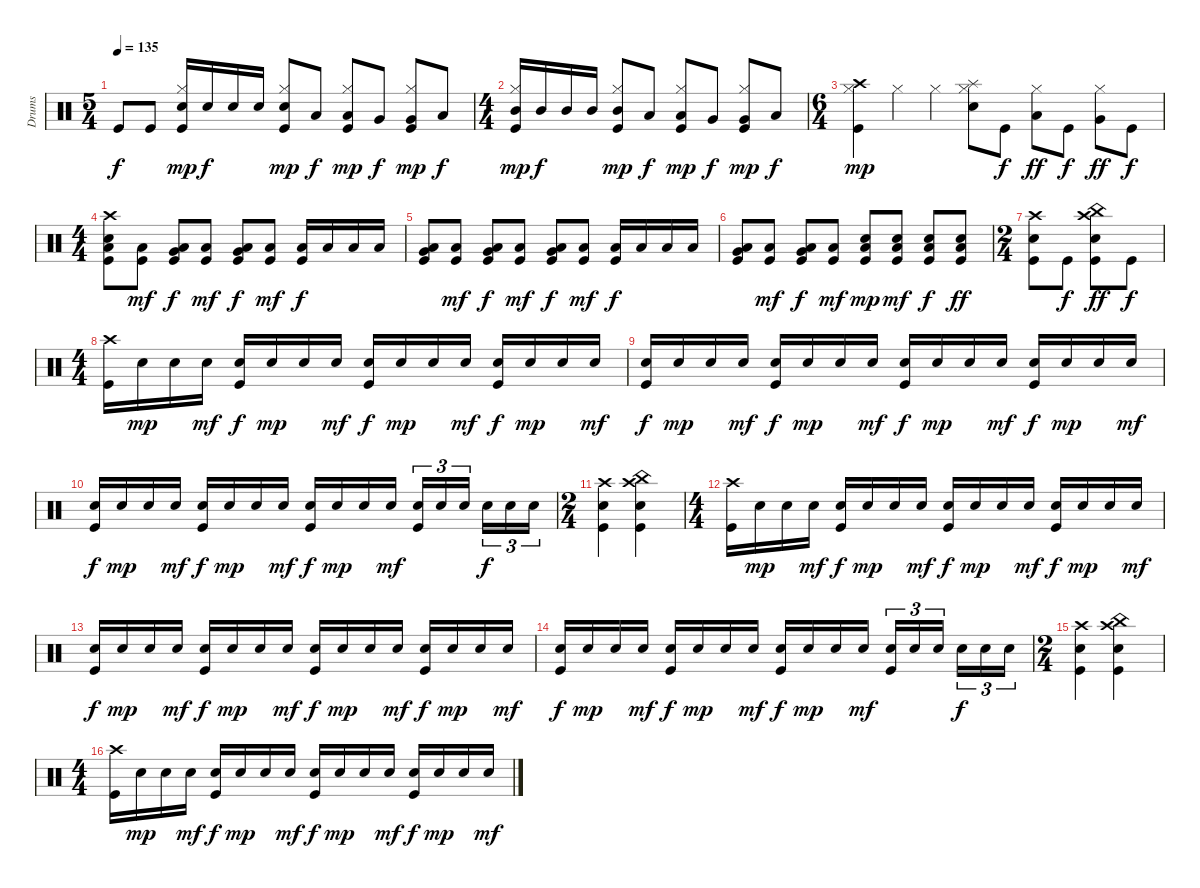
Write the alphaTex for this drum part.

\track ("Drums" "Drums") {instrument percussion}
\staff {score}
\articulation defaults
\ts (5 4)
\tempo 135
\clef neutral
\ks c "Kick (hit)".8{dy f} "Kick (hit)".8
("Hi-Hat (closed)" "Electric Snare (hit)" "Kick (hit)").16{dy mp} "Electric Snare (hit)".16{dy f} "Electric Snare (hit)".16 "Electric Snare (hit)".16 ("Hi-Hat (closed)" "Electric Snare (hit)" "Kick (hit)").8{dy mp} "Low Tom (hit)".8{dy f} ("Hi-Hat (closed)" "Low Tom (hit)" "Kick (hit)").8{dy mp} "Very Low Tom (hit)".8{dy f} ("Hi-Hat (closed)" "Very Low Tom (hit)" "Kick (hit)").8{dy mp} "Low Floor Tom (hit)".8{dy f} |
\ts (4 4)
("Hi-Hat (closed)" "Mid Tom (hit)" "Kick (hit)").16{dy mp} "Mid Tom (hit)".16{dy f} "Mid Tom (hit)".16 "Mid Tom (hit)".16 ("Hi-Hat (closed)" "Mid Tom (hit)" "Kick (hit)").8{dy mp} "Low Tom (hit)".8{dy f} ("Hi-Hat (closed)" "Low Tom (hit)" "Kick (hit)").8{dy mp} "Very Low Tom (hit)".8{dy f} ("Hi-Hat (closed)" "Very Low Tom (hit)" "Kick (hit)").8{dy mp} "Low Floor Tom (hit)".8{dy f} |
\ts (6 4)
("Crash high (hit)" "Hi-Hat (closed)" "Kick (hit)").4{dy mp} "Hi-Hat (closed)".4 "Hi-Hat (closed)".4 ("Splash (hit)" "Hi-Hat (closed)" "Electric Snare (hit)").8 "Kick (hit)".8{dy f} ("Hi-Hat (closed)" "Low Tom (hit)").8{dy ff} "Kick (hit)".8{dy f} ("Hi-Hat (closed)" "Very Low Tom (hit)").8{dy ff} "Kick (hit)".8{dy f} |
\ts (4 4)
("Crash high (hit)" "Low Floor Tom (hit)" "Electric Snare (hit)" "Kick (hit)").8 ("Low Floor Tom (hit)" "Kick (hit)").8{dy mf} ("Low Floor Tom (hit)" "Very Low Tom (hit)" "Kick (hit)").8{dy f} ("Low Floor Tom (hit)" "Kick (hit)").8{dy mf} ("Low Floor Tom (hit)" "Very Low Tom (hit)" "Kick (hit)").8{dy f} ("Low Floor Tom (hit)" "Kick (hit)").8{dy mf} ("Low Tom (hit)" "Kick (hit)").16{dy f} "Low Tom (hit)".16 "Low Tom (hit)".16 "Low Tom (hit)".16 |
("Low Floor Tom (hit)" "Very Low Tom (hit)" "Kick (hit)").8 ("Low Floor Tom (hit)" "Kick (hit)").8{dy mf} ("Low Floor Tom (hit)" "Very Low Tom (hit)" "Kick (hit)").8{dy f} ("Low Floor Tom (hit)" "Kick (hit)").8{dy mf} ("Low Floor Tom (hit)" "Very Low Tom (hit)" "Kick (hit)").8{dy f} ("Low Floor Tom (hit)" "Kick (hit)").8{dy mf} ("Low Tom (hit)" "Kick (hit)").16{dy f} "Low Tom (hit)".16 "Low Tom (hit)".16 "Low Tom (hit)".16 |
("Low Floor Tom (hit)" "Very Low Tom (hit)" "Kick (hit)").8 ("Low Floor Tom (hit)" "Kick (hit)").8{dy mf} ("Low Floor Tom (hit)" "Very Low Tom (hit)" "Kick (hit)").8{dy f} ("Low Floor Tom (hit)" "Kick (hit)").8{dy mf} ("Low Floor Tom (hit)" "Electric Snare (hit)" "Kick (hit)").8{dy mp} ("Low Floor Tom (hit)" "Electric Snare (hit)" "Kick (hit)").8{dy mf} ("Low Floor Tom (hit)" "Electric Snare (hit)" "Kick (hit)").8{dy f} ("Low Floor Tom (hit)" "Electric Snare (hit)" "Kick (hit)").8{dy ff} |
\ts (2 4)
("Crash high (hit)" "Electric Snare (hit)" "Kick (hit)").8 "Kick (hit)".8{dy f} ("Crash high (hit)" "China (hit)" "Electric Snare (hit)" "Kick (hit)").8{dy ff} "Kick (hit)".8{dy f} |
\ts (4 4)
("Crash high (hit)" "Kick (hit)").16 "Electric Snare (hit)".16{dy mp} "Electric Snare (hit)".16 "Electric Snare (hit)".16{dy mf} ("Electric Snare (hit)" "Kick (hit)").16{dy f} "Electric Snare (hit)".16{dy mp} "Electric Snare (hit)".16 "Electric Snare (hit)".16{dy mf} ("Electric Snare (hit)" "Kick (hit)").16{dy f} "Electric Snare (hit)".16{dy mp} "Electric Snare (hit)".16 "Electric Snare (hit)".16{dy mf} ("Electric Snare (hit)" "Kick (hit)").16{dy f} "Electric Snare (hit)".16{dy mp} "Electric Snare (hit)".16 "Electric Snare (hit)".16{dy mf} |
("Electric Snare (hit)" "Kick (hit)").16{dy f} "Electric Snare (hit)".16{dy mp} "Electric Snare (hit)".16 "Electric Snare (hit)".16{dy mf} ("Electric Snare (hit)" "Kick (hit)").16{dy f} "Electric Snare (hit)".16{dy mp} "Electric Snare (hit)".16 "Electric Snare (hit)".16{dy mf} ("Electric Snare (hit)" "Kick (hit)").16{dy f} "Electric Snare (hit)".16{dy mp} "Electric Snare (hit)".16 "Electric Snare (hit)".16{dy mf} ("Electric Snare (hit)" "Kick (hit)").16{dy f} "Electric Snare (hit)".16{dy mp} "Electric Snare (hit)".16 "Electric Snare (hit)".16{dy mf} |
("Electric Snare (hit)" "Kick (hit)").16{dy f} "Electric Snare (hit)".16{dy mp} "Electric Snare (hit)".16 "Electric Snare (hit)".16{dy mf} ("Electric Snare (hit)" "Kick (hit)").16{dy f} "Electric Snare (hit)".16{dy mp} "Electric Snare (hit)".16 "Electric Snare (hit)".16{dy mf} ("Electric Snare (hit)" "Kick (hit)").16{dy f} "Electric Snare (hit)".16{dy mp} "Electric Snare (hit)".16 "Electric Snare (hit)".16{dy mf} ("Electric Snare (hit)" "Kick (hit)").16{tu (3 2)} "Electric Snare (hit)".16{tu (3 2)} "Electric Snare (hit)".16{tu (3 2)} "Electric Snare (hit)".16{tu (3 2) dy f} "Electric Snare (hit)".16{tu (3 2)} "Electric Snare (hit)".16{tu (3 2)} |
\ts (2 4)
("Crash high (hit)" "Electric Snare (hit)" "Kick (hit)").4 ("Crash high (hit)" "China (hit)" "Electric Snare (hit)" "Kick (hit)").4 |
\ts (4 4)
("Crash high (hit)" "Kick (hit)").16 "Electric Snare (hit)".16{dy mp} "Electric Snare (hit)".16 "Electric Snare (hit)".16{dy mf} ("Electric Snare (hit)" "Kick (hit)").16{dy f} "Electric Snare (hit)".16{dy mp} "Electric Snare (hit)".16 "Electric Snare (hit)".16{dy mf} ("Electric Snare (hit)" "Kick (hit)").16{dy f} "Electric Snare (hit)".16{dy mp} "Electric Snare (hit)".16 "Electric Snare (hit)".16{dy mf} ("Electric Snare (hit)" "Kick (hit)").16{dy f} "Electric Snare (hit)".16{dy mp} "Electric Snare (hit)".16 "Electric Snare (hit)".16{dy mf} |
("Electric Snare (hit)" "Kick (hit)").16{dy f} "Electric Snare (hit)".16{dy mp} "Electric Snare (hit)".16 "Electric Snare (hit)".16{dy mf} ("Electric Snare (hit)" "Kick (hit)").16{dy f} "Electric Snare (hit)".16{dy mp} "Electric Snare (hit)".16 "Electric Snare (hit)".16{dy mf} ("Electric Snare (hit)" "Kick (hit)").16{dy f} "Electric Snare (hit)".16{dy mp} "Electric Snare (hit)".16 "Electric Snare (hit)".16{dy mf} ("Electric Snare (hit)" "Kick (hit)").16{dy f} "Electric Snare (hit)".16{dy mp} "Electric Snare (hit)".16 "Electric Snare (hit)".16{dy mf} |
("Electric Snare (hit)" "Kick (hit)").16{dy f} "Electric Snare (hit)".16{dy mp} "Electric Snare (hit)".16 "Electric Snare (hit)".16{dy mf} ("Electric Snare (hit)" "Kick (hit)").16{dy f} "Electric Snare (hit)".16{dy mp} "Electric Snare (hit)".16 "Electric Snare (hit)".16{dy mf} ("Electric Snare (hit)" "Kick (hit)").16{dy f} "Electric Snare (hit)".16{dy mp} "Electric Snare (hit)".16 "Electric Snare (hit)".16{dy mf} ("Electric Snare (hit)" "Kick (hit)").16{tu (3 2)} "Electric Snare (hit)".16{tu (3 2)} "Electric Snare (hit)".16{tu (3 2)} "Electric Snare (hit)".16{tu (3 2) dy f} "Electric Snare (hit)".16{tu (3 2)} "Electric Snare (hit)".16{tu (3 2)} |
\ts (2 4)
("Crash high (hit)" "Electric Snare (hit)" "Kick (hit)").4 ("Crash high (hit)" "China (hit)" "Electric Snare (hit)" "Kick (hit)").4 |
\ts (4 4)
("Crash high (hit)" "Kick (hit)").16 "Electric Snare (hit)".16{dy mp} "Electric Snare (hit)".16 "Electric Snare (hit)".16{dy mf} ("Electric Snare (hit)" "Kick (hit)").16{dy f} "Electric Snare (hit)".16{dy mp} "Electric Snare (hit)".16 "Electric Snare (hit)".16{dy mf} ("Electric Snare (hit)" "Kick (hit)").16{dy f} "Electric Snare (hit)".16{dy mp} "Electric Snare (hit)".16 "Electric Snare (hit)".16{dy mf} ("Electric Snare (hit)" "Kick (hit)").16{dy f} "Electric Snare (hit)".16{dy mp} "Electric Snare (hit)".16 "Electric Snare (hit)".16{dy mf}
